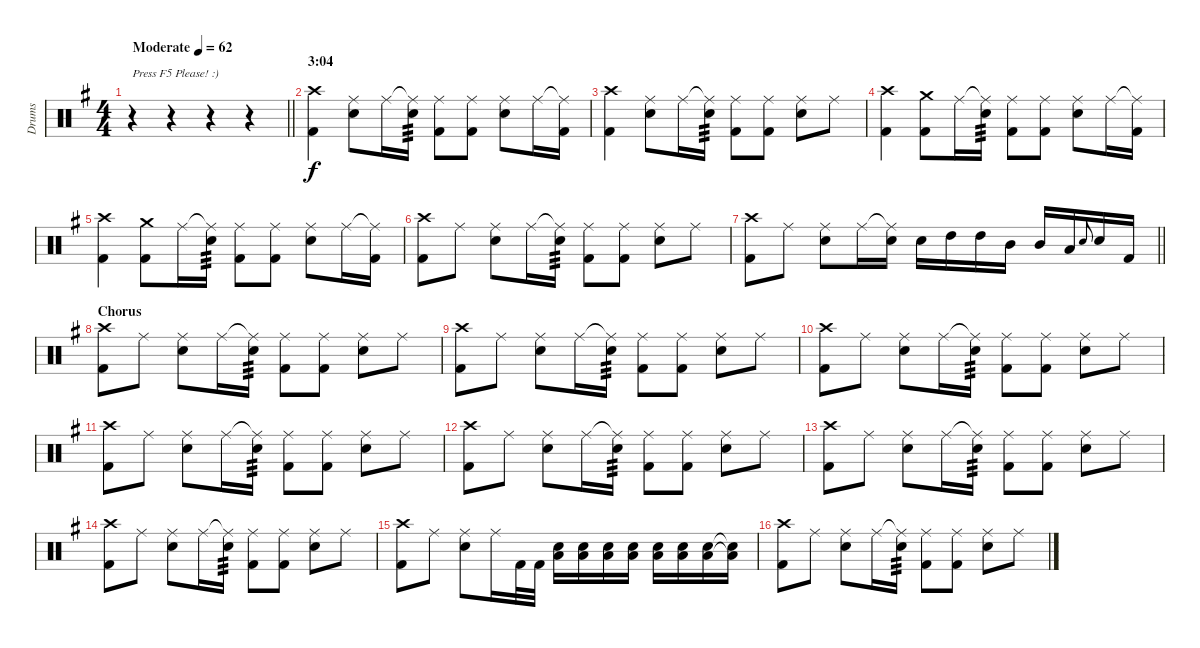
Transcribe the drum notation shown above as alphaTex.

\track ("Drums" "Drums") {instrument percussion}
\staff {score}
\articulation defaults
\ts (4 4)
\tempo (62 "Moderate")
\clef neutral
\barLineRight lightlight
\ks g
r.4{txt "Press F5 Please! :)" dy f} r.4 r.4 r.4 |
\section ("" "3:04")
("Crash high (hit)" "Kick (hit) 2").4 ("Ride (middle)" "Snare (hit) 2").8 "Ride (middle)".16 ("Ride (middle)"{t} "Snare (hit) 2").16{tp 3} ("Ride (middle)" "Kick (hit) 2").8 ("Ride (middle)" "Kick (hit) 2").8 ("Ride (middle)" "Snare (hit) 2").8 "Ride (middle)".16 ("Ride (middle)"{t} "Kick (hit) 2").16 |
("Crash high (hit)" "Kick (hit) 2").4 ("Ride (middle)" "Snare (hit) 2").8 "Ride (middle)".16 ("Ride (middle)"{t} "Snare (hit) 2").16{tp 3} ("Ride (middle)" "Kick (hit) 2").8 ("Ride (middle)" "Kick (hit) 2").8 ("Ride (middle)" "Snare (hit) 2").8 "Ride (middle)".8 |
("Crash high (hit)" "Kick (hit) 2").4 ("Crash medium (hit)" "Kick (hit) 2").8 "Ride (middle)".16 ("Ride (middle)"{t} "Snare (hit) 2").16{tp 3} ("Ride (middle)" "Kick (hit) 2").8 ("Ride (middle)" "Kick (hit) 2").8 ("Ride (middle)" "Snare (hit) 2").8 "Ride (middle)".16 ("Ride (middle)"{t} "Kick (hit) 2").16 |
("Crash high (hit)" "Kick (hit) 2").4 ("Crash medium (hit)" "Kick (hit) 2").8 "Ride (middle)".16 ("Ride (middle)"{t} "Snare (hit) 2").16{tp 3} ("Ride (middle)" "Kick (hit) 2").8 ("Ride (middle)" "Kick (hit) 2").8 ("Ride (middle)" "Snare (hit) 2").8 "Ride (middle)".16 ("Ride (middle)"{t} "Kick (hit) 2").16 |
("Crash high (hit)" "Kick (hit) 2").8 "Ride (middle)".8 ("Ride (middle)" "Snare (hit) 2").8 "Ride (middle)".16 ("Ride (middle)"{t} "Snare (hit) 2").16{tp 3} ("Ride (middle)" "Kick (hit) 2").8 ("Ride (middle)" "Kick (hit) 2").8 ("Ride (middle)" "Snare (hit) 2").8 "Ride (middle)".8 |
\barLineRight lightlight
("Crash high (hit)" "Kick (hit) 2").8 "Ride (middle)".8 ("Ride (middle)" "Snare (hit) 2").8 "Ride (middle)".16 ("Ride (middle)"{t} "Snare (hit) 2").16 "Snare (hit) 2".16 "High Tom (hit)".16 "High Tom (hit)".16 "Mid Tom (hit)".16 "Mid Tom (hit)".16 "Low Tom (hit)".16 "Snare (hit) 2".8{gr onbeat} "Snare (hit) 2".16 "Kick (hit) 2".16 |
\section ("" "Chorus")
("Crash high (hit)" "Kick (hit) 2").8 "Ride (middle)".8 ("Ride (middle)" "Snare (hit) 2").8 "Ride (middle)".16 ("Ride (middle)"{t} "Snare (hit) 2").16{tp 3} ("Ride (middle)" "Kick (hit) 2").8 ("Ride (middle)" "Kick (hit) 2").8 ("Ride (middle)" "Snare (hit) 2").8 "Ride (middle)".8 |
("Crash high (hit)" "Kick (hit) 2").8 "Ride (middle)".8 ("Ride (middle)" "Snare (hit) 2").8 "Ride (middle)".16 ("Ride (middle)"{t} "Snare (hit) 2").16{tp 3} ("Ride (middle)" "Kick (hit) 2").8 ("Ride (middle)" "Kick (hit) 2").8 ("Ride (middle)" "Snare (hit) 2").8 "Ride (middle)".8 |
("Crash high (hit)" "Kick (hit) 2").8 "Ride (middle)".8 ("Ride (middle)" "Snare (hit) 2").8 "Ride (middle)".16 ("Ride (middle)"{t} "Snare (hit) 2").16{tp 3} ("Ride (middle)" "Kick (hit) 2").8 ("Ride (middle)" "Kick (hit) 2").8 ("Ride (middle)" "Snare (hit) 2").8 "Ride (middle)".8 |
("Crash high (hit)" "Kick (hit) 2").8 "Ride (middle)".8 ("Ride (middle)" "Snare (hit) 2").8 "Ride (middle)".16 ("Ride (middle)"{t} "Snare (hit) 2").16{tp 3} ("Ride (middle)" "Kick (hit) 2").8 ("Ride (middle)" "Kick (hit) 2").8 ("Ride (middle)" "Snare (hit) 2").8 "Ride (middle)".8 |
("Crash high (hit)" "Kick (hit) 2").8 "Ride (middle)".8 ("Ride (middle)" "Snare (hit) 2").8 "Ride (middle)".16 ("Ride (middle)"{t} "Snare (hit) 2").16{tp 3} ("Ride (middle)" "Kick (hit) 2").8 ("Ride (middle)" "Kick (hit) 2").8 ("Ride (middle)" "Snare (hit) 2").8 "Ride (middle)".8 |
("Crash high (hit)" "Kick (hit) 2").8 "Ride (middle)".8 ("Ride (middle)" "Snare (hit) 2").8 "Ride (middle)".16 ("Ride (middle)"{t} "Snare (hit) 2").16{tp 3} ("Ride (middle)" "Kick (hit) 2").8 ("Ride (middle)" "Kick (hit) 2").8 ("Ride (middle)" "Snare (hit) 2").8 "Ride (middle)".8 |
("Crash high (hit)" "Kick (hit) 2").8 "Ride (middle)".8 ("Ride (middle)" "Snare (hit) 2").8 "Ride (middle)".16 ("Ride (middle)"{t} "Snare (hit) 2").16{tp 3} ("Ride (middle)" "Kick (hit) 2").8 ("Ride (middle)" "Kick (hit) 2").8 ("Ride (middle)" "Snare (hit) 2").8 "Ride (middle)".8 |
("Crash high (hit)" "Kick (hit) 2").8 "Ride (middle)".8 ("Ride (middle)" "Snare (hit) 2").8 "Ride (middle)".16 "Kick (hit) 2".32 "Kick (hit) 2".32 ("Low Tom (hit)" "Snare (hit) 2").16 ("Low Tom (hit)" "Snare (hit) 2").16 ("Low Tom (hit)" "Snare (hit) 2").16 ("Low Tom (hit)" "Snare (hit) 2").16 ("Low Tom (hit)" "Snare (hit) 2").16 ("Low Tom (hit)" "Snare (hit) 2").16 ("Low Tom (hit)" "Snare (hit) 2").16 ("Low Tom (hit)"{t} "Snare (hit) 2"{t}).16 |
("Crash high (hit)" "Kick (hit) 2").8 "Ride (middle)".8 ("Ride (middle)" "Snare (hit) 2").8 "Ride (middle)".16 ("Ride (middle)"{t} "Snare (hit) 2").16{tp 3} ("Ride (middle)" "Kick (hit) 2").8 ("Ride (middle)" "Kick (hit) 2").8 ("Ride (middle)" "Snare (hit) 2").8 "Ride (middle)".8
